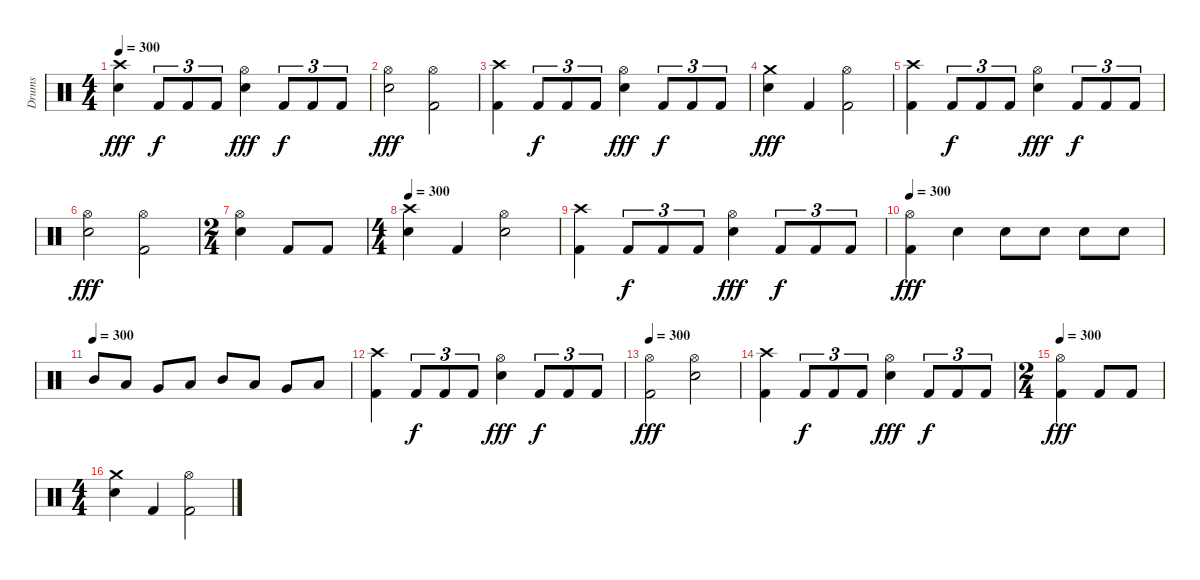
\track ("Drums" "Drums") {instrument percussion}
\staff {score}
\articulation defaults
\ts (4 4)
\tempo 300
\clef neutral
\ks c
("Snare (hit) 2" "Crash high (hit)").4{dy fff} "Kick (hit) 2".8{tu (3 2) dy f} "Kick (hit) 2".8{tu (3 2)} "Kick (hit) 2".8{tu (3 2)} ("Snare (hit) 2" "Hi-Hat (open)").4{dy fff} "Kick (hit) 2".8{tu (3 2) dy f} "Kick (hit) 2".8{tu (3 2)} "Kick (hit) 2".8{tu (3 2)} |
("Snare (hit) 2" "Hi-Hat (open)").2{dy fff} ("Kick (hit) 2" "Hi-Hat (open)").2 |
("Kick (hit) 2" "Crash high (hit)").4 "Kick (hit) 2".8{tu (3 2) dy f} "Kick (hit) 2".8{tu (3 2)} "Kick (hit) 2".8{tu (3 2)} ("Snare (hit) 2" "Hi-Hat (open)").4{dy fff} "Kick (hit) 2".8{tu (3 2) dy f} "Kick (hit) 2".8{tu (3 2)} "Kick (hit) 2".8{tu (3 2)} |
("Snare (hit) 2" "Crash medium (hit)").4{dy fff} "Kick (hit) 2".4 ("Kick (hit) 2" "Hi-Hat (open)").2 |
("Kick (hit) 2" "Crash high (hit)").4 "Kick (hit) 2".8{tu (3 2) dy f} "Kick (hit) 2".8{tu (3 2)} "Kick (hit) 2".8{tu (3 2)} ("Snare (hit) 2" "Hi-Hat (open)").4{dy fff} "Kick (hit) 2".8{tu (3 2) dy f} "Kick (hit) 2".8{tu (3 2)} "Kick (hit) 2".8{tu (3 2)} |
("Snare (hit) 2" "Hi-Hat (open)").2{dy fff} ("Kick (hit) 2" "Hi-Hat (open)").2 |
\ts (2 4)
("Snare (hit) 2" "Hi-Hat (open)").4 "Kick (hit) 2".8 "Kick (hit) 2".8 |
\ts (4 4)
\tempo 300
("Snare (hit) 2" "Crash high (hit)").4 "Kick (hit) 2".4 ("Snare (hit) 2" "Hi-Hat (open)").2 |
("Kick (hit) 2" "Crash high (hit)").4 "Kick (hit) 2".8{tu (3 2) dy f} "Kick (hit) 2".8{tu (3 2)} "Kick (hit) 2".8{tu (3 2)} ("Snare (hit) 2" "Hi-Hat (open)").4{dy fff} "Kick (hit) 2".8{tu (3 2) dy f} "Kick (hit) 2".8{tu (3 2)} "Kick (hit) 2".8{tu (3 2)} |
\tempo 300
("Kick (hit) 2" "Hi-Hat (open)").4{dy fff} "Snare (hit) 2".4 "Snare (hit) 2".8 "Snare (hit) 2".8 "Snare (hit) 2".8 "Snare (hit) 2".8 |
\tempo (300)
"Mid Tom (hit)".8 "Low Tom (hit)".8 "Very Low Tom (hit)".8 "Low Floor Tom (hit)".8 "Mid Tom (hit)".8 "Low Tom (hit)".8 "Very Low Tom (hit)".8 "Low Floor Tom (hit)".8 |
("Kick (hit) 2" "Crash high (hit)").4 "Kick (hit) 2".8{tu (3 2) dy f} "Kick (hit) 2".8{tu (3 2)} "Kick (hit) 2".8{tu (3 2)} ("Snare (hit) 2" "Hi-Hat (open)").4{dy fff} "Kick (hit) 2".8{tu (3 2) dy f} "Kick (hit) 2".8{tu (3 2)} "Kick (hit) 2".8{tu (3 2)} |
\tempo 300
("Kick (hit) 2" "Hi-Hat (open)").2{dy fff} ("Snare (hit) 2" "Hi-Hat (open)").2 |
("Kick (hit) 2" "Crash high (hit)").4 "Kick (hit) 2".8{tu (3 2) dy f} "Kick (hit) 2".8{tu (3 2)} "Kick (hit) 2".8{tu (3 2)} ("Snare (hit) 2" "Hi-Hat (open)").4{dy fff} "Kick (hit) 2".8{tu (3 2) dy f} "Kick (hit) 2".8{tu (3 2)} "Kick (hit) 2".8{tu (3 2)} |
\ts (2 4)
\tempo 300
("Kick (hit) 2" "Hi-Hat (open)").4{dy fff} "Kick (hit) 2".8 "Kick (hit) 2".8 |
\ts (4 4)
("Snare (hit) 2" "Crash medium (hit)").4 "Kick (hit) 2".4 ("Kick (hit) 2" "Hi-Hat (open)").2
